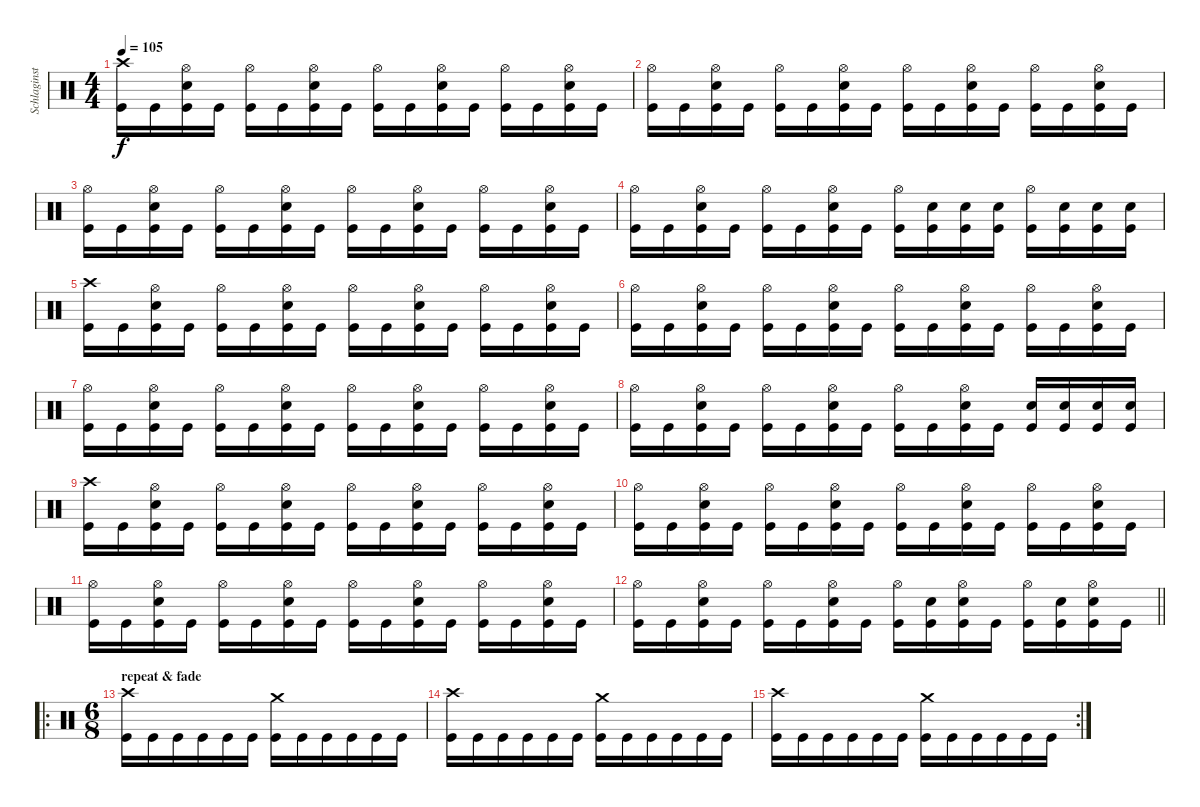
\track ("Schlaginstrumente - Auswahl" "Schlaginst") {instrument percussion}
\staff {score}
\articulation defaults
\ts (4 4)
\tempo 105
\clef neutral
\ks c
("Kick (hit)" "Crash high (hit)").16{dy f} "Kick (hit)".16 ("Kick (hit)" "Hi-Hat (open)" "Snare (hit) 2").16 "Kick (hit)".16 ("Kick (hit)" "Hi-Hat (open)").16 "Kick (hit)".16 ("Kick (hit)" "Hi-Hat (open)" "Snare (hit) 2").16 "Kick (hit)".16 ("Kick (hit)" "Hi-Hat (open)").16 "Kick (hit)".16 ("Kick (hit)" "Hi-Hat (open)" "Snare (hit) 2").16 "Kick (hit)".16 ("Kick (hit)" "Hi-Hat (open)").16 "Kick (hit)".16 ("Kick (hit)" "Hi-Hat (open)" "Snare (hit) 2").16 "Kick (hit)".16 |
("Kick (hit)" "Hi-Hat (open)").16 "Kick (hit)".16 ("Kick (hit)" "Hi-Hat (open)" "Snare (hit) 2").16 "Kick (hit)".16 ("Kick (hit)" "Hi-Hat (open)").16 "Kick (hit)".16 ("Kick (hit)" "Hi-Hat (open)" "Snare (hit) 2").16 "Kick (hit)".16 ("Kick (hit)" "Hi-Hat (open)").16 "Kick (hit)".16 ("Kick (hit)" "Hi-Hat (open)" "Snare (hit) 2").16 "Kick (hit)".16 ("Kick (hit)" "Hi-Hat (open)").16 "Kick (hit)".16 ("Kick (hit)" "Hi-Hat (open)" "Snare (hit) 2").16 "Kick (hit)".16 |
("Kick (hit)" "Hi-Hat (open)").16 "Kick (hit)".16 ("Kick (hit)" "Hi-Hat (open)" "Snare (hit) 2").16 "Kick (hit)".16 ("Kick (hit)" "Hi-Hat (open)").16 "Kick (hit)".16 ("Kick (hit)" "Hi-Hat (open)" "Snare (hit) 2").16 "Kick (hit)".16 ("Kick (hit)" "Hi-Hat (open)").16 "Kick (hit)".16 ("Kick (hit)" "Hi-Hat (open)" "Snare (hit) 2").16 "Kick (hit)".16 ("Kick (hit)" "Hi-Hat (open)").16 "Kick (hit)".16 ("Kick (hit)" "Hi-Hat (open)" "Snare (hit) 2").16 "Kick (hit)".16 |
("Kick (hit)" "Hi-Hat (open)").16 "Kick (hit)".16 ("Kick (hit)" "Hi-Hat (open)" "Snare (hit) 2").16 "Kick (hit)".16 ("Kick (hit)" "Hi-Hat (open)").16 "Kick (hit)".16 ("Kick (hit)" "Hi-Hat (open)" "Snare (hit) 2").16 "Kick (hit)".16 ("Kick (hit)" "Hi-Hat (open)").16 ("Kick (hit)" "Snare (hit) 2").16 ("Kick (hit)" "Snare (hit) 2").16 ("Kick (hit)" "Snare (hit) 2").16 ("Kick (hit)" "Hi-Hat (open)").16 ("Kick (hit)" "Snare (hit) 2").16 ("Kick (hit)" "Snare (hit) 2").16 ("Kick (hit)" "Snare (hit) 2").16 |
("Kick (hit)" "Crash high (hit)").16 "Kick (hit)".16 ("Kick (hit)" "Hi-Hat (open)" "Snare (hit) 2").16 "Kick (hit)".16 ("Kick (hit)" "Hi-Hat (open)").16 "Kick (hit)".16 ("Kick (hit)" "Hi-Hat (open)" "Snare (hit) 2").16 "Kick (hit)".16 ("Kick (hit)" "Hi-Hat (open)").16 "Kick (hit)".16 ("Kick (hit)" "Hi-Hat (open)" "Snare (hit) 2").16 "Kick (hit)".16 ("Kick (hit)" "Hi-Hat (open)").16 "Kick (hit)".16 ("Kick (hit)" "Hi-Hat (open)" "Snare (hit) 2").16 "Kick (hit)".16 |
("Kick (hit)" "Hi-Hat (open)").16 "Kick (hit)".16 ("Kick (hit)" "Hi-Hat (open)" "Snare (hit) 2").16 "Kick (hit)".16 ("Kick (hit)" "Hi-Hat (open)").16 "Kick (hit)".16 ("Kick (hit)" "Hi-Hat (open)" "Snare (hit) 2").16 "Kick (hit)".16 ("Kick (hit)" "Hi-Hat (open)").16 "Kick (hit)".16 ("Kick (hit)" "Hi-Hat (open)" "Snare (hit) 2").16 "Kick (hit)".16 ("Kick (hit)" "Hi-Hat (open)").16 "Kick (hit)".16 ("Kick (hit)" "Hi-Hat (open)" "Snare (hit) 2").16 "Kick (hit)".16 |
("Kick (hit)" "Hi-Hat (open)").16 "Kick (hit)".16 ("Kick (hit)" "Hi-Hat (open)" "Snare (hit) 2").16 "Kick (hit)".16 ("Kick (hit)" "Hi-Hat (open)").16 "Kick (hit)".16 ("Kick (hit)" "Hi-Hat (open)" "Snare (hit) 2").16 "Kick (hit)".16 ("Kick (hit)" "Hi-Hat (open)").16 "Kick (hit)".16 ("Kick (hit)" "Hi-Hat (open)" "Snare (hit) 2").16 "Kick (hit)".16 ("Kick (hit)" "Hi-Hat (open)").16 "Kick (hit)".16 ("Kick (hit)" "Hi-Hat (open)" "Snare (hit) 2").16 "Kick (hit)".16 |
("Kick (hit)" "Hi-Hat (open)").16 "Kick (hit)".16 ("Kick (hit)" "Hi-Hat (open)" "Snare (hit) 2").16 "Kick (hit)".16 ("Kick (hit)" "Hi-Hat (open)").16 "Kick (hit)".16 ("Kick (hit)" "Hi-Hat (open)" "Snare (hit) 2").16 "Kick (hit)".16 ("Kick (hit)" "Hi-Hat (open)").16 "Kick (hit)".16 ("Kick (hit)" "Hi-Hat (open)" "Snare (hit) 2").16 "Kick (hit)".16 ("Kick (hit)" "Snare (hit) 2").16 ("Kick (hit)" "Snare (hit) 2").16 ("Kick (hit)" "Snare (hit) 2").16 ("Kick (hit)" "Snare (hit) 2").16 |
("Kick (hit)" "Crash high (hit)").16 "Kick (hit)".16 ("Kick (hit)" "Hi-Hat (open)" "Snare (hit) 2").16 "Kick (hit)".16 ("Kick (hit)" "Hi-Hat (open)").16 "Kick (hit)".16 ("Kick (hit)" "Hi-Hat (open)" "Snare (hit) 2").16 "Kick (hit)".16 ("Kick (hit)" "Hi-Hat (open)").16 "Kick (hit)".16 ("Kick (hit)" "Hi-Hat (open)" "Snare (hit) 2").16 "Kick (hit)".16 ("Kick (hit)" "Hi-Hat (open)").16 "Kick (hit)".16 ("Kick (hit)" "Hi-Hat (open)" "Snare (hit) 2").16 "Kick (hit)".16 |
("Kick (hit)" "Hi-Hat (open)").16 "Kick (hit)".16 ("Kick (hit)" "Hi-Hat (open)" "Snare (hit) 2").16 "Kick (hit)".16 ("Kick (hit)" "Hi-Hat (open)").16 "Kick (hit)".16 ("Kick (hit)" "Hi-Hat (open)" "Snare (hit) 2").16 "Kick (hit)".16 ("Kick (hit)" "Hi-Hat (open)").16 "Kick (hit)".16 ("Kick (hit)" "Hi-Hat (open)" "Snare (hit) 2").16 "Kick (hit)".16 ("Kick (hit)" "Hi-Hat (open)").16 "Kick (hit)".16 ("Kick (hit)" "Hi-Hat (open)" "Snare (hit) 2").16 "Kick (hit)".16 |
("Kick (hit)" "Hi-Hat (open)").16 "Kick (hit)".16 ("Kick (hit)" "Hi-Hat (open)" "Snare (hit) 2").16 "Kick (hit)".16 ("Kick (hit)" "Hi-Hat (open)").16 "Kick (hit)".16 ("Kick (hit)" "Hi-Hat (open)" "Snare (hit) 2").16 "Kick (hit)".16 ("Kick (hit)" "Hi-Hat (open)").16 "Kick (hit)".16 ("Kick (hit)" "Hi-Hat (open)" "Snare (hit) 2").16 "Kick (hit)".16 ("Kick (hit)" "Hi-Hat (open)").16 "Kick (hit)".16 ("Kick (hit)" "Hi-Hat (open)" "Snare (hit) 2").16 "Kick (hit)".16 |
\barLineRight lightlight
("Kick (hit)" "Hi-Hat (open)").16 "Kick (hit)".16 ("Kick (hit)" "Hi-Hat (open)" "Snare (hit) 2").16 "Kick (hit)".16 ("Kick (hit)" "Hi-Hat (open)").16 "Kick (hit)".16 ("Kick (hit)" "Hi-Hat (open)" "Snare (hit) 2").16 "Kick (hit)".16 ("Kick (hit)" "Hi-Hat (open)").16 ("Kick (hit)" "Snare (hit) 2").16 ("Kick (hit)" "Snare (hit) 2" "Hi-Hat (open)").16 "Kick (hit)".16 ("Kick (hit)" "Hi-Hat (open)").16 ("Kick (hit)" "Snare (hit) 2").16 ("Kick (hit)" "Snare (hit) 2" "Hi-Hat (open)").16 "Kick (hit)".16 |
\ro
\ts (6 8)
\section ("" "repeat & fade")
("Kick (hit)" "Crash high (hit)").16 "Kick (hit)".16 "Kick (hit)".16 "Kick (hit)".16 "Kick (hit)".16 "Kick (hit)".16 ("Kick (hit)" "Crash medium (hit)").16 "Kick (hit)".16 "Kick (hit)".16 "Kick (hit)".16 "Kick (hit)".16 "Kick (hit)".16 |
("Kick (hit)" "Crash high (hit)").16 "Kick (hit)".16 "Kick (hit)".16 "Kick (hit)".16 "Kick (hit)".16 "Kick (hit)".16 ("Kick (hit)" "Crash medium (hit)").16 "Kick (hit)".16 "Kick (hit)".16 "Kick (hit)".16 "Kick (hit)".16 "Kick (hit)".16 |
\rc 2
("Kick (hit)" "Crash high (hit)").16 "Kick (hit)".16 "Kick (hit)".16 "Kick (hit)".16 "Kick (hit)".16 "Kick (hit)".16 ("Kick (hit)" "Crash medium (hit)").16 "Kick (hit)".16 "Kick (hit)".16 "Kick (hit)".16 "Kick (hit)".16 "Kick (hit)".16
